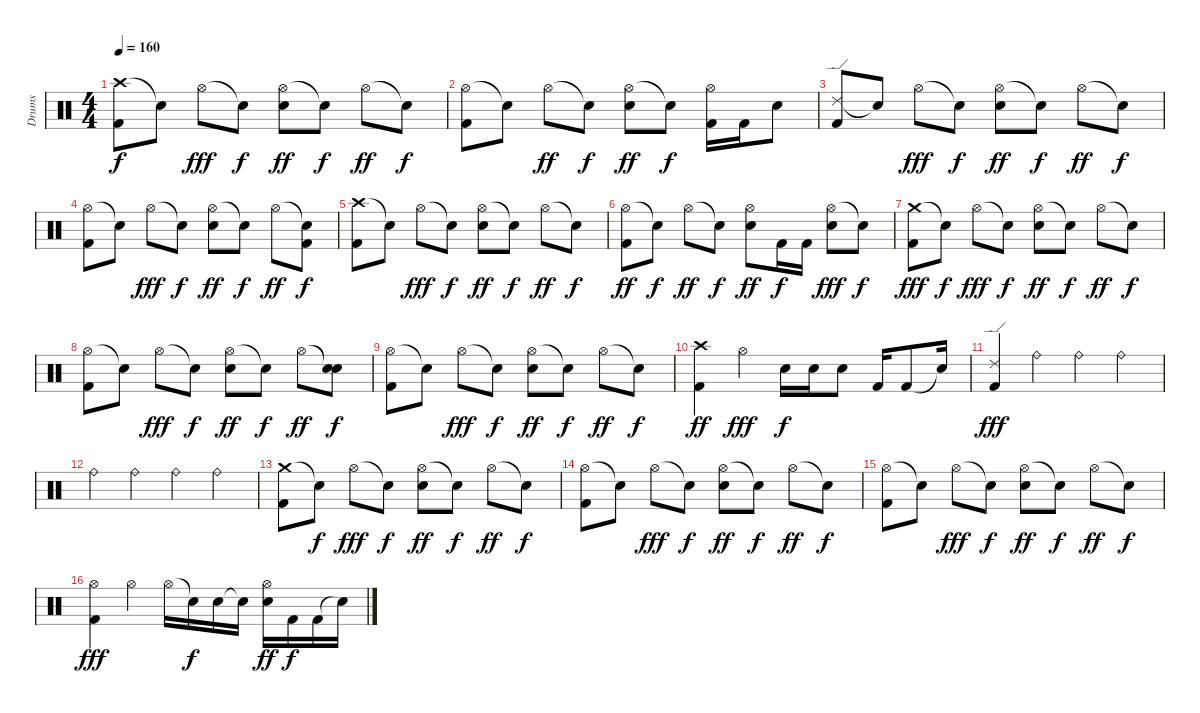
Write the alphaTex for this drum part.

\track ("Drums" "Drums") {instrument percussion}
\staff {score}
\articulation defaults
\ts (4 4)
\tempo 160
\clef neutral
\ks c
("Crash high (hit)" "Kick (hit) 2").8{dy f} "Snare (hit)"{t}.8 "Hi-Hat (open)".8{dy fff} "Snare (hit)"{t}.8{dy f} ("Hi-Hat (open)" "Electric Snare (hit)").8{dy ff} "Snare (hit)"{t}.8{dy f} "Hi-Hat (open)".8{dy ff} "Snare (hit)"{t}.8{dy f} |
("Hi-Hat (open)" "Kick (hit) 2").8 "Snare (hit)"{t}.8 "Hi-Hat (open)".8{dy ff} "Snare (hit)"{t}.8{dy f} ("Hi-Hat (open)" "Snare (hit) 2").8{dy ff} "Snare (hit)"{t}.8{dy f} ("Hi-Hat (open)" "Kick (hit) 2").16 "Kick (hit) 2".16 "Snare (hit) 2".8 |
("Ride (edge) 2" "Kick (hit) 2").8 "Snare (hit)"{t}.8 "Hi-Hat (open)".8{dy fff} "Snare (hit)"{t}.8{dy f} ("Hi-Hat (open)" "Electric Snare (hit)").8{dy ff} "Snare (hit)"{t}.8{dy f} "Hi-Hat (open)".8{dy ff} "Snare (hit)"{t}.8{dy f} |
("Hi-Hat (open)" "Kick (hit) 2").8 "Snare (hit)"{t}.8 "Hi-Hat (open)".8{dy fff} "Snare (hit)"{t}.8{dy f} ("Hi-Hat (open)" "Electric Snare (hit)").8{dy ff} "Snare (hit)"{t}.8{dy f} "Hi-Hat (open)".8{dy ff} ("Snare (hit)"{t} "Kick (hit) 2").8{dy f} |
("Crash high (hit)" "Kick (hit) 2").8 "Snare (hit)"{t}.8 "Hi-Hat (open)".8{dy fff} "Snare (hit)"{t}.8{dy f} ("Hi-Hat (open)" "Electric Snare (hit)").8{dy ff} "Snare (hit)"{t}.8{dy f} "Hi-Hat (open)".8{dy ff} "Snare (hit)"{t}.8{dy f} |
("Hi-Hat (open)" "Kick (hit) 2").8{dy ff} "Snare (hit)"{t}.8{dy f} "Hi-Hat (open)".8{dy ff} "Snare (hit)"{t}.8{dy f} ("Hi-Hat (open)" "Electric Snare (hit)").8{dy ff} "Kick (hit) 2".16{dy f} "Kick (hit) 2".16 ("Hi-Hat (open)" "Electric Snare (hit)").8{dy fff} "Snare (hit)"{t}.8{dy f} |
("Crash medium (hit)" "Kick (hit) 2").8{dy fff} "Snare (hit)"{t}.8{dy f} "Hi-Hat (open)".8{dy fff} "Snare (hit)"{t}.8{dy f} ("Hi-Hat (open)" "Electric Snare (hit)").8{dy ff} "Snare (hit)"{t}.8{dy f} "Hi-Hat (open)".8{dy ff} "Snare (hit)"{t}.8{dy f} |
("Hi-Hat (open)" "Kick (hit) 2").8 "Snare (hit)"{t}.8 "Hi-Hat (open)".8{dy fff} "Snare (hit)"{t}.8{dy f} ("Hi-Hat (open)" "Electric Snare (hit)").8{dy ff} "Snare (hit)"{t}.8{dy f} "Hi-Hat (open)".8{dy ff} ("Snare (hit)"{t} "Electric Snare (hit)").8{dy f} |
("Hi-Hat (open)" "Kick (hit) 2").8 "Snare (hit)"{t}.8 "Hi-Hat (open)".8{dy fff} "Snare (hit)"{t}.8{dy f} ("Hi-Hat (open)" "Electric Snare (hit)").8{dy ff} "Snare (hit)"{t}.8{dy f} "Hi-Hat (open)".8{dy ff} "Snare (hit)"{t}.8{dy f} |
("Crash high (hit)" "Kick (hit) 2").4{dy ff} "Hi-Hat (open)".4{dy fff} "Electric Snare (hit)".16{dy f} "Electric Snare (hit)".16 "Electric Snare (hit)".8 "Kick (hit) 2".16 "Kick (hit) 2".8 "Snare (hit)"{t}.16 |
("Ride (edge) 2" "Kick (hit) 2").4{dy fff} "Ride (bell)".4 "Ride (bell)".4 "Ride (bell)".4 |
"Ride (bell)".4 "Ride (bell)".4 "Ride (bell)".4 "Ride (bell)".4 |
("Crash medium (hit)" "Kick (hit) 2").8 "Snare (hit)"{t}.8{dy f} "Hi-Hat (open)".8{dy fff} "Snare (hit)"{t}.8{dy f} ("Hi-Hat (open)" "Electric Snare (hit)").8{dy ff} "Snare (hit)"{t}.8{dy f} "Hi-Hat (open)".8{dy ff} "Snare (hit)"{t}.8{dy f} |
("Hi-Hat (open)" "Kick (hit) 2").8 "Snare (hit)"{t}.8 "Hi-Hat (open)".8{dy fff} "Snare (hit)"{t}.8{dy f} ("Hi-Hat (open)" "Electric Snare (hit)").8{dy ff} "Snare (hit)"{t}.8{dy f} "Hi-Hat (open)".8{dy ff} "Snare (hit)"{t}.8{dy f} |
("Hi-Hat (open)" "Kick (hit) 2").8 "Snare (hit)"{t}.8 "Hi-Hat (open)".8{dy fff} "Snare (hit)"{t}.8{dy f} ("Hi-Hat (open)" "Electric Snare (hit)").8{dy ff} "Snare (hit)"{t}.8{dy f} "Hi-Hat (open)".8{dy ff} "Snare (hit)"{t}.8{dy f} |
("Hi-Hat (open)" "Kick (hit) 2").4{dy fff} "Hi-Hat (open)".4 "Hi-Hat (open)".16 "Snare (hit)"{t}.16{dy f} "Electric Snare (hit)".16 "Snare (hit)"{t}.16 ("Hi-Hat (open)" "Electric Snare (hit)").16{dy ff} "Kick (hit) 2".16{dy f} "Kick (hit) 2".16 "Snare (hit)"{t}.16
